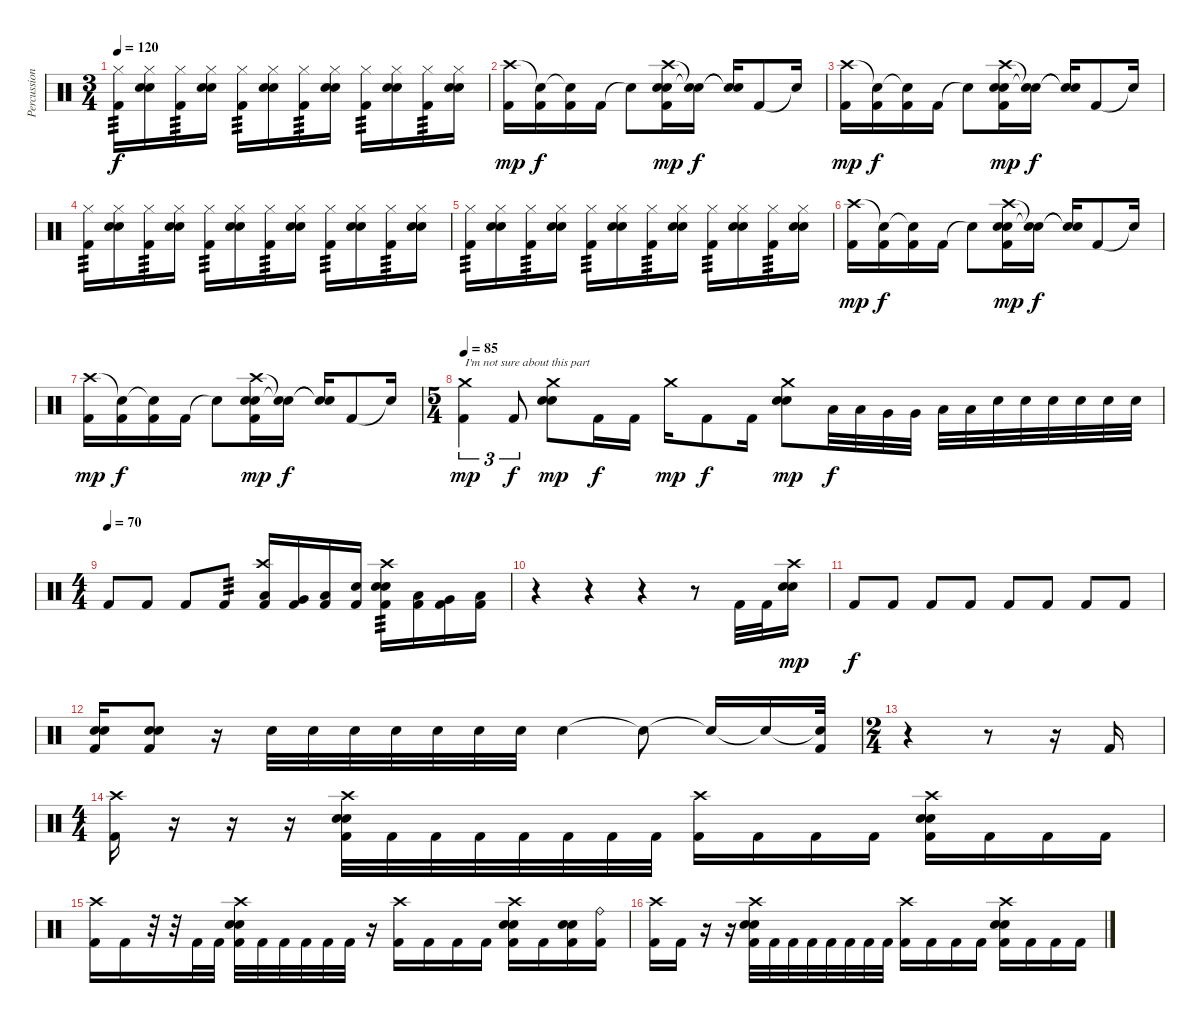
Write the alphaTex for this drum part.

\track ("Percussion" "Percussion") {instrument percussion}
\staff {score}
\articulation defaults
\ts (3 4)
\tempo 120
\clef neutral
\ks c
("Hi-Hat (closed)" "Kick (hit) 2").16{tp 3 dy f} ("Hi-Hat (closed)" "Snare (hit) 2" "Electric Snare (hit)").16 ("Hi-Hat (closed)" "Kick (hit) 2").16{tp 3} ("Hi-Hat (closed)" "Snare (hit) 2" "Electric Snare (hit)").16 ("Hi-Hat (closed)" "Kick (hit) 2").16{tp 3} ("Hi-Hat (closed)" "Snare (hit) 2" "Electric Snare (hit)").16 ("Hi-Hat (closed)" "Kick (hit) 2").16{tp 3} ("Hi-Hat (closed)" "Snare (hit) 2" "Electric Snare (hit)").16 ("Hi-Hat (closed)" "Kick (hit) 2").16{tp 3} ("Hi-Hat (closed)" "Snare (hit) 2" "Electric Snare (hit)").16 ("Hi-Hat (closed)" "Kick (hit) 2").16{tp 3} ("Hi-Hat (closed)" "Snare (hit) 2" "Electric Snare (hit)").16 |
("Crash high (hit)" "Kick (hit) 2").16{dy mp} ("Snare (hit)"{t} "Kick (hit) 2").16{dy f} ("Snare (hit)"{t} "Kick (hit) 2").16 "Kick (hit) 2".16 "Snare (hit)"{t}.8 ("Crash high (hit)" "Snare (hit) 2" "Electric Snare (hit)" "Kick (hit) 2").16{dy mp} ("Snare (hit)"{t} "Snare (hit)"{t}).16{dy f} ("Snare (hit)"{t} "Snare (hit)"{t}).16 "Kick (hit) 2".8 "Snare (hit)"{t}.16 |
("Crash high (hit)" "Kick (hit) 2").16{dy mp} ("Snare (hit)"{t} "Kick (hit) 2").16{dy f} ("Snare (hit)"{t} "Kick (hit) 2").16 "Kick (hit) 2".16 "Snare (hit)"{t}.8 ("Crash high (hit)" "Snare (hit) 2" "Electric Snare (hit)" "Kick (hit) 2").16{dy mp} ("Snare (hit)"{t} "Snare (hit)"{t}).16{dy f} ("Snare (hit)"{t} "Snare (hit)"{t}).16 "Kick (hit) 2".8 "Snare (hit)"{t}.16 |
("Hi-Hat (closed)" "Kick (hit) 2").16{tp 3} ("Hi-Hat (closed)" "Snare (hit) 2" "Electric Snare (hit)").16 ("Hi-Hat (closed)" "Kick (hit) 2").16{tp 3} ("Hi-Hat (closed)" "Snare (hit) 2" "Electric Snare (hit)").16 ("Hi-Hat (closed)" "Kick (hit) 2").16{tp 3} ("Hi-Hat (closed)" "Snare (hit) 2" "Electric Snare (hit)").16 ("Hi-Hat (closed)" "Kick (hit) 2").16{tp 3} ("Hi-Hat (closed)" "Snare (hit) 2" "Electric Snare (hit)").16 ("Hi-Hat (closed)" "Kick (hit) 2").16{tp 3} ("Hi-Hat (closed)" "Snare (hit) 2" "Electric Snare (hit)").16 ("Hi-Hat (closed)" "Kick (hit) 2").16{tp 3} ("Hi-Hat (closed)" "Snare (hit) 2" "Electric Snare (hit)").16 |
("Hi-Hat (closed)" "Kick (hit) 2").16{tp 3} ("Hi-Hat (closed)" "Snare (hit) 2" "Electric Snare (hit)").16 ("Hi-Hat (closed)" "Kick (hit) 2").16{tp 3} ("Hi-Hat (closed)" "Snare (hit) 2" "Electric Snare (hit)").16 ("Hi-Hat (closed)" "Kick (hit) 2").16{tp 3} ("Hi-Hat (closed)" "Snare (hit) 2" "Electric Snare (hit)").16 ("Hi-Hat (closed)" "Kick (hit) 2").16{tp 3} ("Hi-Hat (closed)" "Snare (hit) 2" "Electric Snare (hit)").16 ("Hi-Hat (closed)" "Kick (hit) 2").16{tp 3} ("Hi-Hat (closed)" "Snare (hit) 2" "Electric Snare (hit)").16 ("Hi-Hat (closed)" "Kick (hit) 2").16{tp 3} ("Hi-Hat (closed)" "Snare (hit) 2" "Electric Snare (hit)").16 |
("Crash high (hit)" "Kick (hit) 2").16{dy mp} ("Snare (hit)"{t} "Kick (hit) 2").16{dy f} ("Snare (hit)"{t} "Kick (hit) 2").16 "Kick (hit) 2".16 "Snare (hit)"{t}.8 ("Crash high (hit)" "Snare (hit) 2" "Electric Snare (hit)" "Kick (hit) 2").16{dy mp} ("Snare (hit)"{t} "Snare (hit)"{t}).16{dy f} ("Snare (hit)"{t} "Snare (hit)"{t}).16 "Kick (hit) 2".8 "Snare (hit)"{t}.16 |
("Crash high (hit)" "Kick (hit) 2").16{dy mp} ("Snare (hit)"{t} "Kick (hit) 2").16{dy f} ("Snare (hit)"{t} "Kick (hit) 2").16 "Kick (hit) 2".16 "Snare (hit)"{t}.8 ("Crash high (hit)" "Snare (hit) 2" "Electric Snare (hit)" "Kick (hit) 2").16{dy mp} ("Snare (hit)"{t} "Snare (hit)"{t}).16{dy f} ("Snare (hit)"{t} "Snare (hit)"{t}).16 "Kick (hit) 2".8 "Snare (hit)"{t}.16 |
\ts (5 4)
\tempo 85
("Crash medium (hit)" "Kick (hit) 2").4{tu (3 2) txt "I'm not sure about this part" dy mp} "Kick (hit) 2".8{tu (3 2) dy f} ("Crash medium (hit)" "Snare (hit) 2" "Electric Snare (hit)").8{dy mp} "Kick (hit) 2".16{dy f} "Kick (hit) 2".16 "Crash medium (hit)".16{dy mp} "Kick (hit) 2".8{dy f} "Kick (hit) 2".16 ("Crash medium (hit)" "Snare (hit) 2" "Electric Snare (hit)").8{dy mp} "Low Tom (hit)".32{dy f} "Low Tom (hit)".32 "Very Low Tom (hit)".32 "Very Low Tom (hit)".32 "Low Floor Tom (hit)".32 "Low Floor Tom (hit)".32 "Electric Snare (hit)".32 "Electric Snare (hit)".32 "Electric Snare (hit)".32 "Electric Snare (hit)".32 "Electric Snare (hit)".32 "Electric Snare (hit)".32 |
\ts (4 4)
\tempo (70)
"Kick (hit) 2".8 "Kick (hit) 2".8 "Kick (hit) 2".8 "Kick (hit) 2".8{tp 3} ("Crash high (hit)" "Low Tom (hit)" "Kick (hit) 2").16 ("Very Low Tom (hit)" "Kick (hit) 2").16 ("Low Floor Tom (hit)" "Kick (hit) 2").16 ("Electric Snare (hit)" "Kick (hit) 2").16 ("Crash high (hit)" "Snare (hit) 2" "Electric Snare (hit)" "Kick (hit) 2").16{tp 3} ("Low Tom (hit)" "Kick (hit) 2").16 ("Very Low Tom (hit)" "Kick (hit) 2").16 ("Low Floor Tom (hit)" "Kick (hit) 2").16 |
r.4 r.4 r.4 r.8 "Kick (hit) 2".32 "Kick (hit) 2".32 ("Crash high (hit)" "Snare (hit) 2" "Electric Snare (hit)").16{dy mp} |
"Kick (hit) 2".8{dy f} "Kick (hit) 2".8 "Kick (hit) 2".8 "Kick (hit) 2".8 "Kick (hit) 2".8 "Kick (hit) 2".8 "Kick (hit) 2".8 "Kick (hit) 2".8 |
("Snare (hit) 2" "Electric Snare (hit)" "Kick (hit) 2").16 ("Snare (hit) 2" "Electric Snare (hit)" "Kick (hit) 2").8 r.16 "Electric Snare (hit)".32 "Electric Snare (hit)".32 "Electric Snare (hit)".32 "Electric Snare (hit)".32 "Electric Snare (hit)".32 "Electric Snare (hit)".32 "Electric Snare (hit)".32 "Electric Snare (hit)".4 "Snare (hit)"{t}.8 "Snare (hit)"{t}.16 "Snare (hit)"{t}.16 ("Snare (hit)"{t} "Kick (hit) 2").32 |
\ts (2 4)
r.4 r.8 r.16 "Kick (hit) 2".16 |
\ts (4 4)
("Crash high (hit)" "Kick (hit) 2").16 r.16 r.16 r.16 ("Crash high (hit)" "Snare (hit) 2" "Electric Snare (hit)" "Kick (hit) 2").32 "Kick (hit) 2".32 "Kick (hit) 2".32 "Kick (hit) 2".32 "Kick (hit) 2".32 "Kick (hit) 2".32 "Kick (hit) 2".32 "Kick (hit) 2".32 ("Crash high (hit)" "Kick (hit) 2").16 "Kick (hit) 2".16 "Kick (hit) 2".16 "Kick (hit) 2".16 ("Crash high (hit)" "Snare (hit) 2" "Electric Snare (hit)" "Kick (hit) 2").16 "Kick (hit) 2".16 "Kick (hit) 2".16 "Kick (hit) 2".16 |
("Crash high (hit)" "Kick (hit) 2").16 "Kick (hit) 2".16 r.32 r.32 "Kick (hit) 2".32 "Kick (hit) 2".32 ("Crash high (hit)" "Snare (hit) 2" "Electric Snare (hit)" "Kick (hit) 2").32 "Kick (hit) 2".32 "Kick (hit) 2".32 "Kick (hit) 2".32 "Kick (hit) 2".32 "Kick (hit) 2".32 r.16 ("Crash high (hit)" "Kick (hit) 2").16 "Kick (hit) 2".16 "Kick (hit) 2".16 "Kick (hit) 2".16 ("Crash high (hit)" "Electric Snare (hit)" "Snare (hit) 2" "Kick (hit) 2").16 "Kick (hit) 2".16 ("Electric Snare (hit)" "Snare (hit) 2" "Kick (hit) 2").16 ("Ride (bell)" "Kick (hit) 2").16 |
("Crash high (hit)" "Kick (hit) 2").16 "Kick (hit) 2".16 r.16 r.16 ("Crash high (hit)" "Snare (hit) 2" "Electric Snare (hit)" "Kick (hit) 2").32 "Kick (hit) 2".32 "Kick (hit) 2".32 "Kick (hit) 2".32 "Kick (hit) 2".32 "Kick (hit) 2".32 "Kick (hit) 2".32 "Kick (hit) 2".32 ("Crash high (hit)" "Kick (hit) 2").16 "Kick (hit) 2".16 "Kick (hit) 2".16 "Kick (hit) 2".16 ("Crash high (hit)" "Snare (hit) 2" "Electric Snare (hit)" "Kick (hit) 2").16 "Kick (hit) 2".16 "Kick (hit) 2".16 "Kick (hit) 2".16
